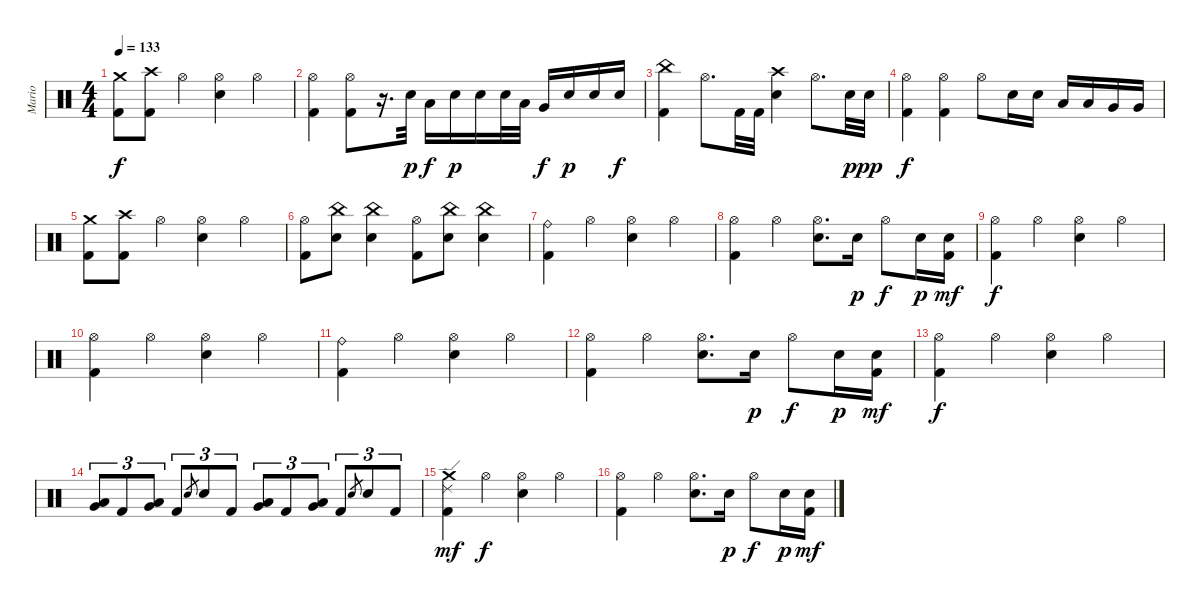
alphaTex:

\track ("Mario" "Mario") {instrument percussion}
\staff {score}
\articulation defaults
\ts (4 4)
\tempo 133
\clef neutral
\ks c
("Crash medium (hit)" "Kick (hit) 2").8{dy f} ("Crash high (hit)" "Kick (hit) 2").8 "Hi-Hat (open)".4 ("Hi-Hat (open)" "Electric Snare (hit)").4 "Hi-Hat (open)".4 |
("Hi-Hat (open)" "Kick (hit) 2").4 ("Hi-Hat (open)" "Kick (hit) 2").8 r.16{d} "Electric Snare (hit)".32{dy p} "Low Tom (hit)".16{dy f} "Electric Snare (hit)".16{dy p} "Electric Snare (hit)".16 "Electric Snare (hit)".32 "Low Tom (hit)".32 "Very Low Tom (hit)".16{dy f} "Electric Snare (hit)".16{dy p} "Electric Snare (hit)".16 "Electric Snare (hit)".16{dy f} |
("China (hit)" "Kick (hit) 2").4 "Hi-Hat (open)".8{d} "Kick (hit) 2".32 "Kick (hit) 2".32 ("Crash high (hit)" "Electric Snare (hit)").4 "Hi-Hat (open)".8{d} "Electric Snare (hit)".32{dy p} "Electric Snare (hit)".32{dy pp} |
("Hi-Hat (open)" "Kick (hit) 2").4{dy f} ("Hi-Hat (open)" "Kick (hit) 2").4 "Hi-Hat (open)".8 "Electric Snare (hit)".16 "Electric Snare (hit)".16 "Low Tom (hit)".16 "Low Tom (hit)".16 "Very Low Tom (hit)".16 "Very Low Tom (hit)".16 |
("Crash medium (hit)" "Kick (hit) 2").8 ("Crash high (hit)" "Kick (hit) 2").8 "Hi-Hat (open)".4 ("Hi-Hat (open)" "Electric Snare (hit)").4 "Hi-Hat (open)".4 |
("Hi-Hat (open)" "Kick (hit) 2").8 ("China (hit)" "Electric Snare (hit)").8 ("China (hit)" "Electric Snare (hit)").4 ("Hi-Hat (open)" "Kick (hit) 2").8 ("China (hit)" "Electric Snare (hit)").8 ("China (hit)" "Electric Snare (hit)").4 |
("Ride (bell)" "Kick (hit) 2").4 "Hi-Hat (open)".4 ("Hi-Hat (open)" "Electric Snare (hit)").4 "Hi-Hat (open)".4 |
("Hi-Hat (open)" "Kick (hit) 2").4 "Hi-Hat (open)".4 ("Hi-Hat (open)" "Electric Snare (hit)").8{d} "Electric Snare (hit)".16{dy p} "Hi-Hat (open)".8{dy f} "Electric Snare (hit)".16{dy p} ("Electric Snare (hit)" "Kick (hit) 2").16{dy mf} |
("Hi-Hat (open)" "Kick (hit) 2").4{dy f} "Hi-Hat (open)".4 ("Hi-Hat (open)" "Electric Snare (hit)").4 "Hi-Hat (open)".4 |
("Hi-Hat (open)" "Kick (hit) 2").4 "Hi-Hat (open)".4 ("Hi-Hat (open)" "Electric Snare (hit)").4 "Hi-Hat (open)".4 |
("Ride (bell)" "Kick (hit) 2").4 "Hi-Hat (open)".4 ("Hi-Hat (open)" "Electric Snare (hit)").4 "Hi-Hat (open)".4 |
("Hi-Hat (open)" "Kick (hit) 2").4 "Hi-Hat (open)".4 ("Hi-Hat (open)" "Electric Snare (hit)").8{d} "Electric Snare (hit)".16{dy p} "Hi-Hat (open)".8{dy f} "Electric Snare (hit)".16{dy p} ("Electric Snare (hit)" "Kick (hit) 2").16{dy mf} |
("Hi-Hat (open)" "Kick (hit) 2").4{dy f} "Hi-Hat (open)".4 ("Hi-Hat (open)" "Electric Snare (hit)").4 "Hi-Hat (open)".4 |
("Low Tom (hit)" "Very Low Tom (hit)").8{tu (3 2)} "Kick (hit) 2".8{tu (3 2)} ("Low Tom (hit)" "Very Low Tom (hit)").8{tu (3 2)} "Kick (hit) 2".8{tu (3 2)} "Electric Snare (hit)".8{gr} "Electric Snare (hit)".8{tu (3 2)} "Kick (hit) 2".8{tu (3 2)} ("Low Tom (hit)" "Very Low Tom (hit)").8{tu (3 2)} "Kick (hit) 2".8{tu (3 2)} ("Low Tom (hit)" "Very Low Tom (hit)").8{tu (3 2)} "Kick (hit) 2".8{tu (3 2)} "Electric Snare (hit)".8{gr} "Electric Snare (hit)".8{tu (3 2)} "Kick (hit) 2".8{tu (3 2)} |
("Crash medium (hit)" "Ride (edge) 2" "Kick (hit) 2").4{dy mf} "Hi-Hat (open)".4{dy f} ("Hi-Hat (open)" "Electric Snare (hit)").4 "Hi-Hat (open)".4 |
("Hi-Hat (open)" "Kick (hit) 2").4 "Hi-Hat (open)".4 ("Hi-Hat (open)" "Electric Snare (hit)").8{d} "Electric Snare (hit)".16{dy p} "Hi-Hat (open)".8{dy f} "Electric Snare (hit)".16{dy p} ("Electric Snare (hit)" "Kick (hit) 2").16{dy mf}
